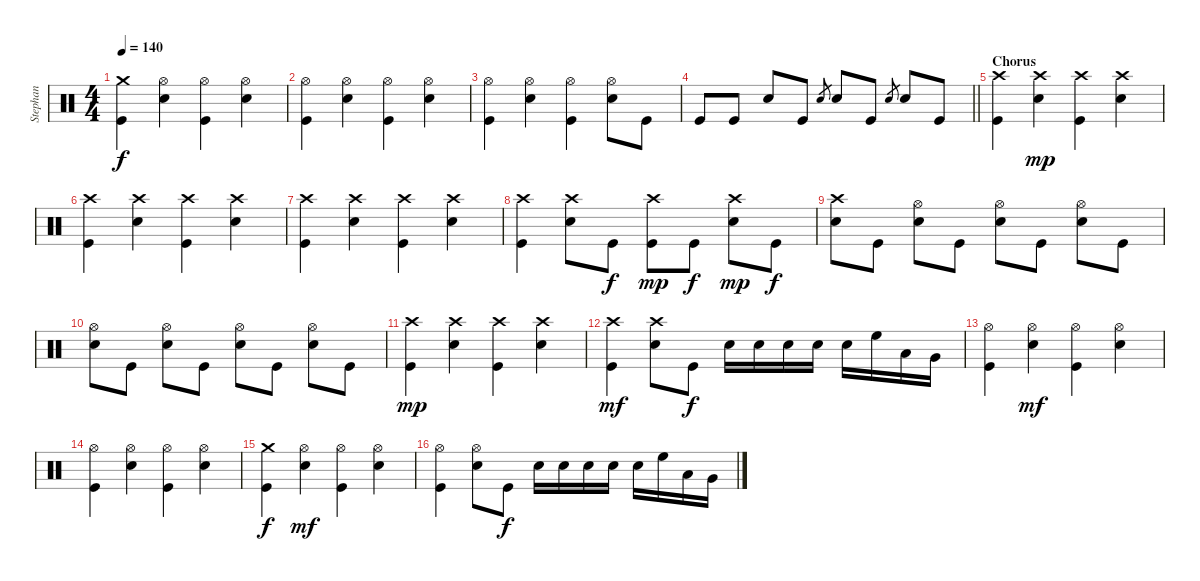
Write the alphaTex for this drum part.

\track ("Stephan" "Stephan") {instrument percussion}
\staff {score}
\articulation defaults
\ts (4 4)
\tempo 140
\clef neutral
\ks c
("Kick (hit)" "Crash medium (hit)").4{dy f} ("Snare (hit) 2" "Hi-Hat (open)").4 ("Kick (hit)" "Hi-Hat (open)").4 ("Snare (hit) 2" "Hi-Hat (open)").4 |
("Kick (hit)" "Hi-Hat (open)").4 ("Snare (hit) 2" "Hi-Hat (open)").4 ("Kick (hit)" "Hi-Hat (open)").4 ("Snare (hit) 2" "Hi-Hat (open)").4 |
("Kick (hit)" "Hi-Hat (open)").4 ("Snare (hit) 2" "Hi-Hat (open)").4 ("Kick (hit)" "Hi-Hat (open)").4 ("Snare (hit) 2" "Hi-Hat (open)").8 "Kick (hit)".8 |
\barLineRight lightlight "Kick (hit)".8 "Kick (hit)".8 "Snare (hit) 2".8 "Kick (hit)".8 "Snare (hit) 2".8{gr} "Snare (hit) 2".8 "Kick (hit)".8 "Snare (hit) 2".8{gr} "Snare (hit) 2".8 "Kick (hit)".8
|
\section ("" "Chorus")
("Kick (hit)" "Crash high (hit)").4 ("Snare (hit) 2" "Crash high (hit)").4{dy mp} ("Kick (hit)" "Crash high (hit)").4 ("Snare (hit) 2" "Crash high (hit)").4 |
("Kick (hit)" "Crash high (hit)").4 ("Snare (hit) 2" "Crash high (hit)").4 ("Kick (hit)" "Crash high (hit)").4 ("Snare (hit) 2" "Crash high (hit)").4 |
("Kick (hit)" "Crash high (hit)").4 ("Snare (hit) 2" "Crash high (hit)").4 ("Kick (hit)" "Crash high (hit)").4 ("Snare (hit) 2" "Crash high (hit)").4 |
("Kick (hit)" "Crash high (hit)").4 ("Snare (hit) 2" "Crash high (hit)").8 "Kick (hit)".8{dy f} ("Kick (hit)" "Crash high (hit)").8{dy mp} "Kick (hit)".8{dy f} ("Snare (hit) 2" "Crash high (hit)").8{dy mp} "Kick (hit)".8{dy f} |
("Snare (hit) 2" "Crash high (hit)").8 "Kick (hit)".8 ("Snare (hit) 2" "Hi-Hat (open)").8 "Kick (hit)".8 ("Snare (hit) 2" "Hi-Hat (open)").8 "Kick (hit)".8 ("Snare (hit) 2" "Hi-Hat (open)").8 "Kick (hit)".8 |
("Snare (hit) 2" "Hi-Hat (open)").8 "Kick (hit)".8 ("Snare (hit) 2" "Hi-Hat (open)").8 "Kick (hit)".8 ("Snare (hit) 2" "Hi-Hat (open)").8 "Kick (hit)".8 ("Snare (hit) 2" "Hi-Hat (open)").8 "Kick (hit)".8 |
("Kick (hit)" "Crash high (hit)").4{dy mp} ("Snare (hit) 2" "Crash high (hit)").4 ("Kick (hit)" "Crash high (hit)").4 ("Snare (hit) 2" "Crash high (hit)").4 |
("Kick (hit)" "Crash high (hit)").4{dy mf} ("Snare (hit) 2" "Crash high (hit)").8 "Kick (hit)".8{dy f} "Snare (hit) 2".16 "Snare (hit) 2".16 "Snare (hit) 2".16 "Snare (hit) 2".16 "Snare (hit) 2".16 "High Floor Tom (hit)".16 "Low Tom (hit)".16 "Very Low Tom (hit)".16 |
("Kick (hit)" "Hi-Hat (open)").4 ("Snare (hit) 2" "Hi-Hat (open)").4{dy mf} ("Kick (hit)" "Hi-Hat (open)").4 ("Snare (hit) 2" "Hi-Hat (open)").4 |
("Kick (hit)" "Hi-Hat (open)").4 ("Snare (hit) 2" "Hi-Hat (open)").4 ("Kick (hit)" "Hi-Hat (open)").4 ("Snare (hit) 2" "Hi-Hat (open)").4 |
("Kick (hit)" "Crash medium (hit)").4{dy f} ("Snare (hit) 2" "Hi-Hat (open)").4{dy mf} ("Kick (hit)" "Hi-Hat (open)").4 ("Snare (hit) 2" "Hi-Hat (open)").4 |
("Kick (hit)" "Hi-Hat (open)").4 ("Snare (hit) 2" "Hi-Hat (open)").8 "Kick (hit)".8{dy f} "Snare (hit) 2".16 "Snare (hit) 2".16 "Snare (hit) 2".16 "Snare (hit) 2".16 "Snare (hit) 2".16 "High Floor Tom (hit)".16 "Low Tom (hit)".16 "Very Low Tom (hit)".16
